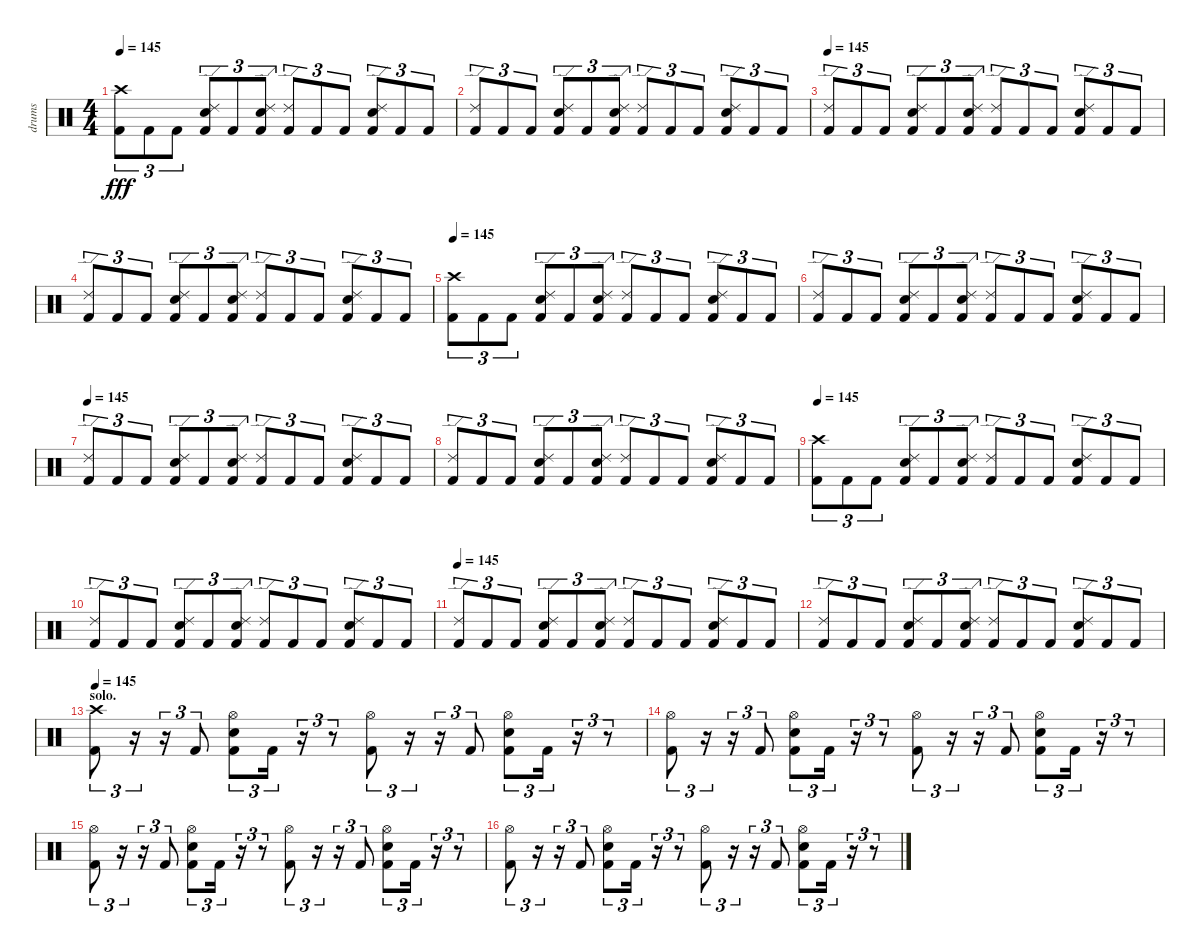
\track ("drums" "drums") {instrument percussion}
\staff {score}
\articulation defaults
\ts (4 4)
\tempo 145
\clef neutral
\ks c
("Crash high (hit)" "Kick (hit) 2").8{tu (3 2) dy fff} "Kick (hit) 2".8{tu (3 2)} "Kick (hit) 2".8{tu (3 2)} ("Ride (edge) 2" "Snare (hit) 2" "Kick (hit) 2").8{tu (3 2)} "Kick (hit) 2".8{tu (3 2)} ("Ride (edge) 2" "Snare (hit) 2" "Kick (hit) 2").8{tu (3 2)} ("Ride (edge) 2" "Kick (hit) 2").8{tu (3 2)} "Kick (hit) 2".8{tu (3 2)} "Kick (hit) 2".8{tu (3 2)} ("Ride (edge) 2" "Snare (hit) 2" "Kick (hit) 2").8{tu (3 2)} "Kick (hit) 2".8{tu (3 2)} "Kick (hit) 2".8{tu (3 2)} |
("Ride (edge) 2" "Kick (hit) 2").8{tu (3 2)} "Kick (hit) 2".8{tu (3 2)} "Kick (hit) 2".8{tu (3 2)} ("Ride (edge) 2" "Snare (hit) 2" "Kick (hit) 2").8{tu (3 2)} "Kick (hit) 2".8{tu (3 2)} ("Ride (edge) 2" "Snare (hit) 2" "Kick (hit) 2").8{tu (3 2)} ("Ride (edge) 2" "Kick (hit) 2").8{tu (3 2)} "Kick (hit) 2".8{tu (3 2)} "Kick (hit) 2".8{tu (3 2)} ("Ride (edge) 2" "Snare (hit) 2" "Kick (hit) 2").8{tu (3 2)} "Kick (hit) 2".8{tu (3 2)} "Kick (hit) 2".8{tu (3 2)} |
\tempo 145
("Ride (edge) 2" "Kick (hit) 2").8{tu (3 2)} "Kick (hit) 2".8{tu (3 2)} "Kick (hit) 2".8{tu (3 2)} ("Ride (edge) 2" "Snare (hit) 2" "Kick (hit) 2").8{tu (3 2)} "Kick (hit) 2".8{tu (3 2)} ("Ride (edge) 2" "Snare (hit) 2" "Kick (hit) 2").8{tu (3 2)} ("Ride (edge) 2" "Kick (hit) 2").8{tu (3 2)} "Kick (hit) 2".8{tu (3 2)} "Kick (hit) 2".8{tu (3 2)} ("Ride (edge) 2" "Snare (hit) 2" "Kick (hit) 2").8{tu (3 2)} "Kick (hit) 2".8{tu (3 2)} "Kick (hit) 2".8{tu (3 2)} |
("Ride (edge) 2" "Kick (hit) 2").8{tu (3 2)} "Kick (hit) 2".8{tu (3 2)} "Kick (hit) 2".8{tu (3 2)} ("Ride (edge) 2" "Snare (hit) 2" "Kick (hit) 2").8{tu (3 2)} "Kick (hit) 2".8{tu (3 2)} ("Ride (edge) 2" "Snare (hit) 2" "Kick (hit) 2").8{tu (3 2)} ("Ride (edge) 2" "Kick (hit) 2").8{tu (3 2)} "Kick (hit) 2".8{tu (3 2)} "Kick (hit) 2".8{tu (3 2)} ("Ride (edge) 2" "Snare (hit) 2" "Kick (hit) 2").8{tu (3 2)} "Kick (hit) 2".8{tu (3 2)} "Kick (hit) 2".8{tu (3 2)} |
\tempo 145
("Crash high (hit)" "Kick (hit) 2").8{tu (3 2)} "Kick (hit) 2".8{tu (3 2)} "Kick (hit) 2".8{tu (3 2)} ("Ride (edge) 2" "Snare (hit) 2" "Kick (hit) 2").8{tu (3 2)} "Kick (hit) 2".8{tu (3 2)} ("Ride (edge) 2" "Snare (hit) 2" "Kick (hit) 2").8{tu (3 2)} ("Ride (edge) 2" "Kick (hit) 2").8{tu (3 2)} "Kick (hit) 2".8{tu (3 2)} "Kick (hit) 2".8{tu (3 2)} ("Ride (edge) 2" "Snare (hit) 2" "Kick (hit) 2").8{tu (3 2)} "Kick (hit) 2".8{tu (3 2)} "Kick (hit) 2".8{tu (3 2)} |
("Ride (edge) 2" "Kick (hit) 2").8{tu (3 2)} "Kick (hit) 2".8{tu (3 2)} "Kick (hit) 2".8{tu (3 2)} ("Ride (edge) 2" "Snare (hit) 2" "Kick (hit) 2").8{tu (3 2)} "Kick (hit) 2".8{tu (3 2)} ("Ride (edge) 2" "Snare (hit) 2" "Kick (hit) 2").8{tu (3 2)} ("Ride (edge) 2" "Kick (hit) 2").8{tu (3 2)} "Kick (hit) 2".8{tu (3 2)} "Kick (hit) 2".8{tu (3 2)} ("Ride (edge) 2" "Snare (hit) 2" "Kick (hit) 2").8{tu (3 2)} "Kick (hit) 2".8{tu (3 2)} "Kick (hit) 2".8{tu (3 2)} |
\tempo 145
("Ride (edge) 2" "Kick (hit) 2").8{tu (3 2)} "Kick (hit) 2".8{tu (3 2)} "Kick (hit) 2".8{tu (3 2)} ("Ride (edge) 2" "Snare (hit) 2" "Kick (hit) 2").8{tu (3 2)} "Kick (hit) 2".8{tu (3 2)} ("Ride (edge) 2" "Snare (hit) 2" "Kick (hit) 2").8{tu (3 2)} ("Ride (edge) 2" "Kick (hit) 2").8{tu (3 2)} "Kick (hit) 2".8{tu (3 2)} "Kick (hit) 2".8{tu (3 2)} ("Ride (edge) 2" "Snare (hit) 2" "Kick (hit) 2").8{tu (3 2)} "Kick (hit) 2".8{tu (3 2)} "Kick (hit) 2".8{tu (3 2)} |
("Ride (edge) 2" "Kick (hit) 2").8{tu (3 2)} "Kick (hit) 2".8{tu (3 2)} "Kick (hit) 2".8{tu (3 2)} ("Ride (edge) 2" "Snare (hit) 2" "Kick (hit) 2").8{tu (3 2)} "Kick (hit) 2".8{tu (3 2)} ("Ride (edge) 2" "Snare (hit) 2" "Kick (hit) 2").8{tu (3 2)} ("Ride (edge) 2" "Kick (hit) 2").8{tu (3 2)} "Kick (hit) 2".8{tu (3 2)} "Kick (hit) 2".8{tu (3 2)} ("Ride (edge) 2" "Snare (hit) 2" "Kick (hit) 2").8{tu (3 2)} "Kick (hit) 2".8{tu (3 2)} "Kick (hit) 2".8{tu (3 2)} |
\tempo 145
("Crash high (hit)" "Kick (hit) 2").8{tu (3 2)} "Kick (hit) 2".8{tu (3 2)} "Kick (hit) 2".8{tu (3 2)} ("Ride (edge) 2" "Snare (hit) 2" "Kick (hit) 2").8{tu (3 2)} "Kick (hit) 2".8{tu (3 2)} ("Ride (edge) 2" "Snare (hit) 2" "Kick (hit) 2").8{tu (3 2)} ("Ride (edge) 2" "Kick (hit) 2").8{tu (3 2)} "Kick (hit) 2".8{tu (3 2)} "Kick (hit) 2".8{tu (3 2)} ("Ride (edge) 2" "Snare (hit) 2" "Kick (hit) 2").8{tu (3 2)} "Kick (hit) 2".8{tu (3 2)} "Kick (hit) 2".8{tu (3 2)} |
("Ride (edge) 2" "Kick (hit) 2").8{tu (3 2)} "Kick (hit) 2".8{tu (3 2)} "Kick (hit) 2".8{tu (3 2)} ("Ride (edge) 2" "Snare (hit) 2" "Kick (hit) 2").8{tu (3 2)} "Kick (hit) 2".8{tu (3 2)} ("Ride (edge) 2" "Snare (hit) 2" "Kick (hit) 2").8{tu (3 2)} ("Ride (edge) 2" "Kick (hit) 2").8{tu (3 2)} "Kick (hit) 2".8{tu (3 2)} "Kick (hit) 2".8{tu (3 2)} ("Ride (edge) 2" "Snare (hit) 2" "Kick (hit) 2").8{tu (3 2)} "Kick (hit) 2".8{tu (3 2)} "Kick (hit) 2".8{tu (3 2)} |
\tempo 145
("Ride (edge) 2" "Kick (hit) 2").8{tu (3 2)} "Kick (hit) 2".8{tu (3 2)} "Kick (hit) 2".8{tu (3 2)} ("Ride (edge) 2" "Snare (hit) 2" "Kick (hit) 2").8{tu (3 2)} "Kick (hit) 2".8{tu (3 2)} ("Ride (edge) 2" "Snare (hit) 2" "Kick (hit) 2").8{tu (3 2)} ("Ride (edge) 2" "Kick (hit) 2").8{tu (3 2)} "Kick (hit) 2".8{tu (3 2)} "Kick (hit) 2".8{tu (3 2)} ("Ride (edge) 2" "Snare (hit) 2" "Kick (hit) 2").8{tu (3 2)} "Kick (hit) 2".8{tu (3 2)} "Kick (hit) 2".8{tu (3 2)} |
("Ride (edge) 2" "Kick (hit) 2").8{tu (3 2)} "Kick (hit) 2".8{tu (3 2)} "Kick (hit) 2".8{tu (3 2)} ("Ride (edge) 2" "Snare (hit) 2" "Kick (hit) 2").8{tu (3 2)} "Kick (hit) 2".8{tu (3 2)} ("Ride (edge) 2" "Snare (hit) 2" "Kick (hit) 2").8{tu (3 2)} ("Ride (edge) 2" "Kick (hit) 2").8{tu (3 2)} "Kick (hit) 2".8{tu (3 2)} "Kick (hit) 2".8{tu (3 2)} ("Ride (edge) 2" "Snare (hit) 2" "Kick (hit) 2").8{tu (3 2)} "Kick (hit) 2".8{tu (3 2)} "Kick (hit) 2".8{tu (3 2)} |
\section ("" "solo.")
\tempo 145
("Crash high (hit)" "Kick (hit) 2").8{tu (3 2)} r.16{tu (3 2)} r.16{tu (3 2)} "Kick (hit) 2".8{tu (3 2)} ("Hi-Hat (open)" "Snare (hit) 2" "Kick (hit) 2").8{tu (3 2)} "Kick (hit) 2".16{tu (3 2)} r.16{tu (3 2)} r.8{tu (3 2)} ("Hi-Hat (open)" "Kick (hit) 2").8{tu (3 2)} r.16{tu (3 2)} r.16{tu (3 2)} "Kick (hit) 2".8{tu (3 2)} ("Hi-Hat (open)" "Snare (hit) 2" "Kick (hit) 2").8{tu (3 2)} "Kick (hit) 2".16{tu (3 2)} r.16{tu (3 2)} r.8{tu (3 2)} |
("Hi-Hat (open)" "Kick (hit) 2").8{tu (3 2)} r.16{tu (3 2)} r.16{tu (3 2)} "Kick (hit) 2".8{tu (3 2)} ("Hi-Hat (open)" "Snare (hit) 2" "Kick (hit) 2").8{tu (3 2)} "Kick (hit) 2".16{tu (3 2)} r.16{tu (3 2)} r.8{tu (3 2)} ("Hi-Hat (open)" "Kick (hit) 2").8{tu (3 2)} r.16{tu (3 2)} r.16{tu (3 2)} "Kick (hit) 2".8{tu (3 2)} ("Hi-Hat (open)" "Snare (hit) 2" "Kick (hit) 2").8{tu (3 2)} "Kick (hit) 2".16{tu (3 2)} r.16{tu (3 2)} r.8{tu (3 2)} |
("Hi-Hat (open)" "Kick (hit) 2").8{tu (3 2)} r.16{tu (3 2)} r.16{tu (3 2)} "Kick (hit) 2".8{tu (3 2)} ("Hi-Hat (open)" "Snare (hit) 2" "Kick (hit) 2").8{tu (3 2)} "Kick (hit) 2".16{tu (3 2)} r.16{tu (3 2)} r.8{tu (3 2)} ("Hi-Hat (open)" "Kick (hit) 2").8{tu (3 2)} r.16{tu (3 2)} r.16{tu (3 2)} "Kick (hit) 2".8{tu (3 2)} ("Hi-Hat (open)" "Snare (hit) 2" "Kick (hit) 2").8{tu (3 2)} "Kick (hit) 2".16{tu (3 2)} r.16{tu (3 2)} r.8{tu (3 2)} |
("Hi-Hat (open)" "Kick (hit) 2").8{tu (3 2)} r.16{tu (3 2)} r.16{tu (3 2)} "Kick (hit) 2".8{tu (3 2)} ("Hi-Hat (open)" "Snare (hit) 2" "Kick (hit) 2").8{tu (3 2)} "Kick (hit) 2".16{tu (3 2)} r.16{tu (3 2)} r.8{tu (3 2)} ("Hi-Hat (open)" "Kick (hit) 2").8{tu (3 2)} r.16{tu (3 2)} r.16{tu (3 2)} "Kick (hit) 2".8{tu (3 2)} ("Hi-Hat (open)" "Snare (hit) 2" "Kick (hit) 2").8{tu (3 2)} "Kick (hit) 2".16{tu (3 2)} r.16{tu (3 2)} r.8{tu (3 2)}
